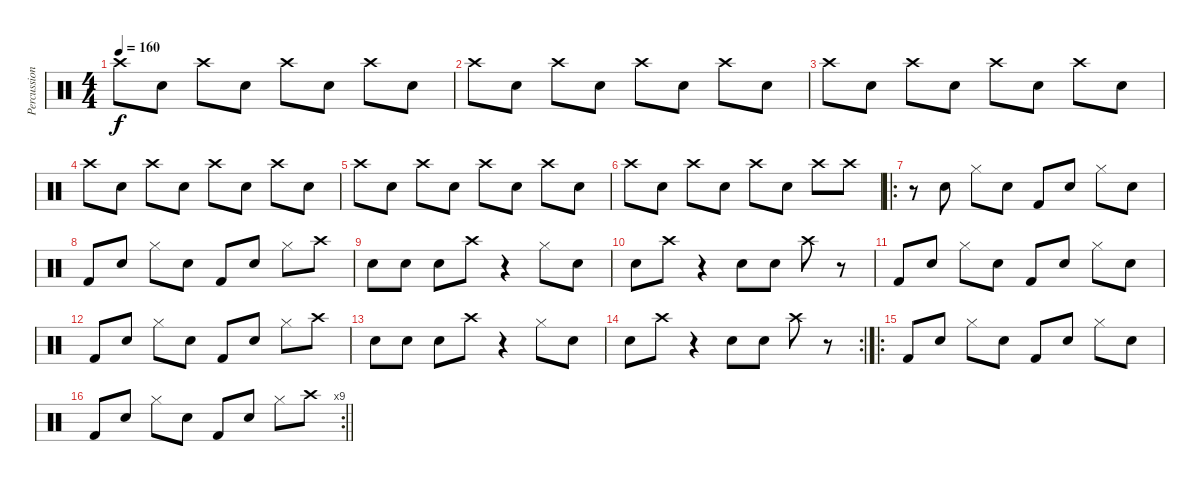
\track ("Percussion" "Percussion") {instrument percussion}
\staff {score}
\articulation defaults
\ts (4 4)
\tempo 160
\clef neutral
\ks c "Crash high (hit)".8{dy f} "Electric Snare (hit)".8 "Crash high (hit)".8 "Electric Snare (hit)".8 "Crash high (hit)".8 "Electric Snare (hit)".8 "Crash high (hit)".8 "Electric Snare (hit)".8
|
"Crash high (hit)".8 "Electric Snare (hit)".8 "Crash high (hit)".8 "Electric Snare (hit)".8 "Crash high (hit)".8 "Electric Snare (hit)".8 "Crash high (hit)".8 "Electric Snare (hit)".8 |
"Crash high (hit)".8 "Electric Snare (hit)".8 "Crash high (hit)".8 "Electric Snare (hit)".8 "Crash high (hit)".8 "Electric Snare (hit)".8 "Crash high (hit)".8 "Electric Snare (hit)".8 |
"Crash high (hit)".8 "Electric Snare (hit)".8 "Crash high (hit)".8 "Electric Snare (hit)".8 "Crash high (hit)".8 "Electric Snare (hit)".8 "Crash high (hit)".8 "Electric Snare (hit)".8 |
"Crash high (hit)".8 "Electric Snare (hit)".8 "Crash high (hit)".8 "Electric Snare (hit)".8 "Crash high (hit)".8 "Electric Snare (hit)".8 "Crash high (hit)".8 "Electric Snare (hit)".8 |
"Crash high (hit)".8 "Electric Snare (hit)".8 "Crash high (hit)".8 "Electric Snare (hit)".8 "Crash high (hit)".8 "Electric Snare (hit)".8 "Crash high (hit)".8 "Crash high (hit)".8 |
\ro
r.8 "Electric Snare (hit)".8 "Hi-Hat (closed)".8 "Electric Snare (hit)".8 "Kick (hit) 2".8 "Electric Snare (hit)".8 "Hi-Hat (closed)".8 "Electric Snare (hit)".8 |
"Kick (hit) 2".8 "Electric Snare (hit)".8 "Hi-Hat (closed)".8 "Electric Snare (hit)".8 "Kick (hit) 2".8 "Electric Snare (hit)".8 "Hi-Hat (closed)".8 "Crash high (hit)".8 |
"Electric Snare (hit)".8 "Electric Snare (hit)".8 "Electric Snare (hit)".8 "Crash high (hit)".8 r.4 "Hi-Hat (closed)".8 "Electric Snare (hit)".8 |
"Electric Snare (hit)".8 "Crash high (hit)".8 r.4 "Electric Snare (hit)".8 "Electric Snare (hit)".8 "Crash high (hit)".8 r.8 |
"Kick (hit) 2".8 "Electric Snare (hit)".8 "Hi-Hat (closed)".8 "Electric Snare (hit)".8 "Kick (hit) 2".8 "Electric Snare (hit)".8 "Hi-Hat (closed)".8 "Electric Snare (hit)".8 |
"Kick (hit) 2".8 "Electric Snare (hit)".8 "Hi-Hat (closed)".8 "Electric Snare (hit)".8 "Kick (hit) 2".8 "Electric Snare (hit)".8 "Hi-Hat (closed)".8 "Crash high (hit)".8 |
"Electric Snare (hit)".8 "Electric Snare (hit)".8 "Electric Snare (hit)".8 "Crash high (hit)".8 r.4 "Hi-Hat (closed)".8 "Electric Snare (hit)".8 |
\rc 2 "Electric Snare (hit)".8 "Crash high (hit)".8
r.4 "Electric Snare (hit)".8 "Electric Snare (hit)".8 "Crash high (hit)".8 r.8 |
\ro "Kick (hit) 2".8 "Electric Snare (hit)".8 "Hi-Hat (closed)".8 "Electric Snare (hit)".8 "Kick (hit) 2".8 "Electric Snare (hit)".8 "Hi-Hat (closed)".8 "Electric Snare (hit)".8
|
\rc 9
\barLineRight lightlight "Kick (hit) 2".8 "Electric Snare (hit)".8 "Hi-Hat (closed)".8 "Electric Snare (hit)".8 "Kick (hit) 2".8 "Electric Snare (hit)".8 "Hi-Hat (closed)".8 "Crash high (hit)".8
